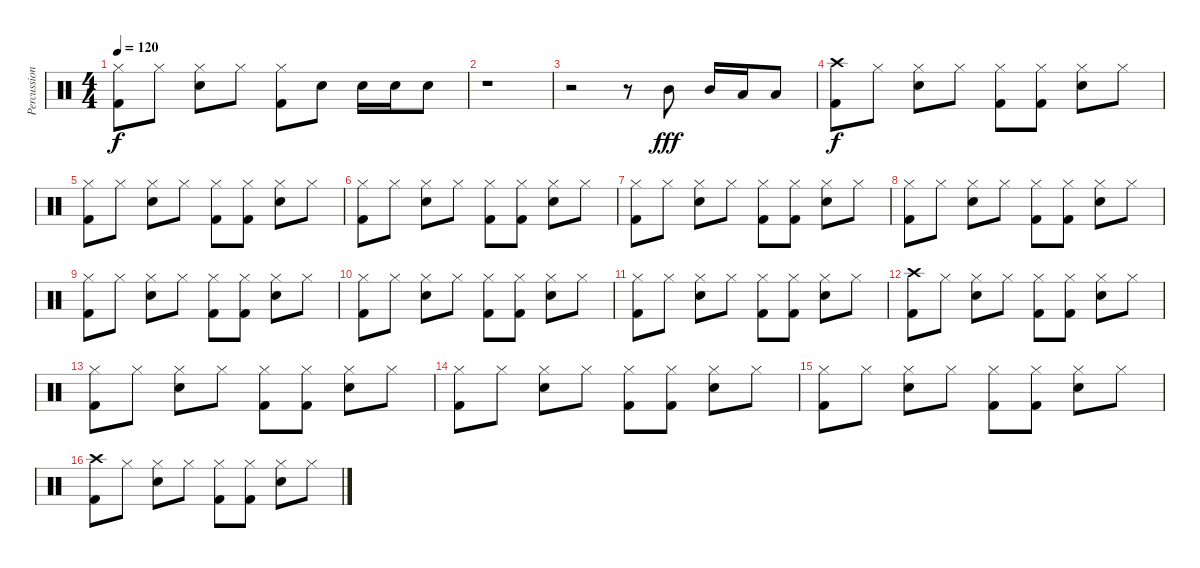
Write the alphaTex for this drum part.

\track ("Percussion" "Percussion") {instrument percussion}
\staff {score}
\articulation defaults
\ts (4 4)
\tempo 120
\clef neutral
\ks c
("Hi-Hat (closed)" "Kick (hit) 2").8{dy f} "Hi-Hat (closed)".8 ("Hi-Hat (closed)" "Electric Snare (hit)").8 "Hi-Hat (closed)".8 ("Hi-Hat (closed)" "Kick (hit) 2").8 "Electric Snare (hit)".8 "Electric Snare (hit)".16 "Electric Snare (hit)".16 "Electric Snare (hit)".8 |
r.1 |
r.2 r.8 "Mid Tom (hit)".8{dy fff} "Mid Tom (hit)".16 "Low Tom (hit)".16 "Low Tom (hit)".8 |
("Crash high (hit)" "Kick (hit) 2").8{dy f} "Hi-Hat (closed)".8 ("Hi-Hat (closed)" "Electric Snare (hit)").8 "Hi-Hat (closed)".8 ("Hi-Hat (closed)" "Kick (hit) 2").8 ("Hi-Hat (closed)" "Kick (hit) 2").8 ("Hi-Hat (closed)" "Electric Snare (hit)").8 "Hi-Hat (closed)".8 |
("Hi-Hat (closed)" "Kick (hit) 2").8 "Hi-Hat (closed)".8 ("Hi-Hat (closed)" "Electric Snare (hit)").8 "Hi-Hat (closed)".8 ("Hi-Hat (closed)" "Kick (hit) 2").8 ("Hi-Hat (closed)" "Kick (hit) 2").8 ("Hi-Hat (closed)" "Electric Snare (hit)").8 "Hi-Hat (closed)".8 |
("Hi-Hat (closed)" "Kick (hit) 2").8 "Hi-Hat (closed)".8 ("Hi-Hat (closed)" "Electric Snare (hit)").8 "Hi-Hat (closed)".8 ("Hi-Hat (closed)" "Kick (hit) 2").8 ("Hi-Hat (closed)" "Kick (hit) 2").8 ("Hi-Hat (closed)" "Electric Snare (hit)").8 "Hi-Hat (closed)".8 |
("Hi-Hat (closed)" "Kick (hit) 2").8 "Hi-Hat (closed)".8 ("Hi-Hat (closed)" "Electric Snare (hit)").8 "Hi-Hat (closed)".8 ("Hi-Hat (closed)" "Kick (hit) 2").8 ("Hi-Hat (closed)" "Kick (hit) 2").8 ("Hi-Hat (closed)" "Electric Snare (hit)").8 "Hi-Hat (closed)".8 |
("Hi-Hat (closed)" "Kick (hit) 2").8 "Hi-Hat (closed)".8 ("Hi-Hat (closed)" "Electric Snare (hit)").8 "Hi-Hat (closed)".8 ("Hi-Hat (closed)" "Kick (hit) 2").8 ("Hi-Hat (closed)" "Kick (hit) 2").8 ("Hi-Hat (closed)" "Electric Snare (hit)").8 "Hi-Hat (closed)".8 |
("Hi-Hat (closed)" "Kick (hit) 2").8 "Hi-Hat (closed)".8 ("Hi-Hat (closed)" "Electric Snare (hit)").8 "Hi-Hat (closed)".8 ("Hi-Hat (closed)" "Kick (hit) 2").8 ("Hi-Hat (closed)" "Kick (hit) 2").8 ("Hi-Hat (closed)" "Electric Snare (hit)").8 "Hi-Hat (closed)".8 |
("Hi-Hat (closed)" "Kick (hit) 2").8 "Hi-Hat (closed)".8 ("Hi-Hat (closed)" "Electric Snare (hit)").8 "Hi-Hat (closed)".8 ("Hi-Hat (closed)" "Kick (hit) 2").8 ("Hi-Hat (closed)" "Kick (hit) 2").8 ("Hi-Hat (closed)" "Electric Snare (hit)").8 "Hi-Hat (closed)".8 |
("Hi-Hat (closed)" "Kick (hit) 2").8 "Hi-Hat (closed)".8 ("Hi-Hat (closed)" "Electric Snare (hit)").8 "Hi-Hat (closed)".8 ("Hi-Hat (closed)" "Kick (hit) 2").8 ("Hi-Hat (closed)" "Kick (hit) 2").8 ("Hi-Hat (closed)" "Electric Snare (hit)").8 "Hi-Hat (closed)".8 |
("Crash high (hit)" "Kick (hit) 2").8 "Hi-Hat (closed)".8 ("Hi-Hat (closed)" "Electric Snare (hit)").8 "Hi-Hat (closed)".8 ("Hi-Hat (closed)" "Kick (hit) 2").8 ("Hi-Hat (closed)" "Kick (hit) 2").8 ("Hi-Hat (closed)" "Electric Snare (hit)").8 "Hi-Hat (closed)".8 |
("Hi-Hat (closed)" "Kick (hit) 2").8 "Hi-Hat (closed)".8 ("Hi-Hat (closed)" "Electric Snare (hit)").8 "Hi-Hat (closed)".8 ("Hi-Hat (closed)" "Kick (hit) 2").8 ("Hi-Hat (closed)" "Kick (hit) 2").8 ("Hi-Hat (closed)" "Electric Snare (hit)").8 "Hi-Hat (closed)".8 |
("Hi-Hat (closed)" "Kick (hit) 2").8 "Hi-Hat (closed)".8 ("Hi-Hat (closed)" "Electric Snare (hit)").8 "Hi-Hat (closed)".8 ("Hi-Hat (closed)" "Kick (hit) 2").8 ("Hi-Hat (closed)" "Kick (hit) 2").8 ("Hi-Hat (closed)" "Electric Snare (hit)").8 "Hi-Hat (closed)".8 |
("Hi-Hat (closed)" "Kick (hit) 2").8 "Hi-Hat (closed)".8 ("Hi-Hat (closed)" "Electric Snare (hit)").8 "Hi-Hat (closed)".8 ("Hi-Hat (closed)" "Kick (hit) 2").8 ("Hi-Hat (closed)" "Kick (hit) 2").8 ("Hi-Hat (closed)" "Electric Snare (hit)").8 "Hi-Hat (closed)".8 |
("Crash high (hit)" "Kick (hit) 2").8 "Hi-Hat (closed)".8 ("Hi-Hat (closed)" "Electric Snare (hit)").8 "Hi-Hat (closed)".8 ("Hi-Hat (closed)" "Kick (hit) 2").8 ("Hi-Hat (closed)" "Kick (hit) 2").8 ("Hi-Hat (closed)" "Electric Snare (hit)").8 "Hi-Hat (closed)".8
